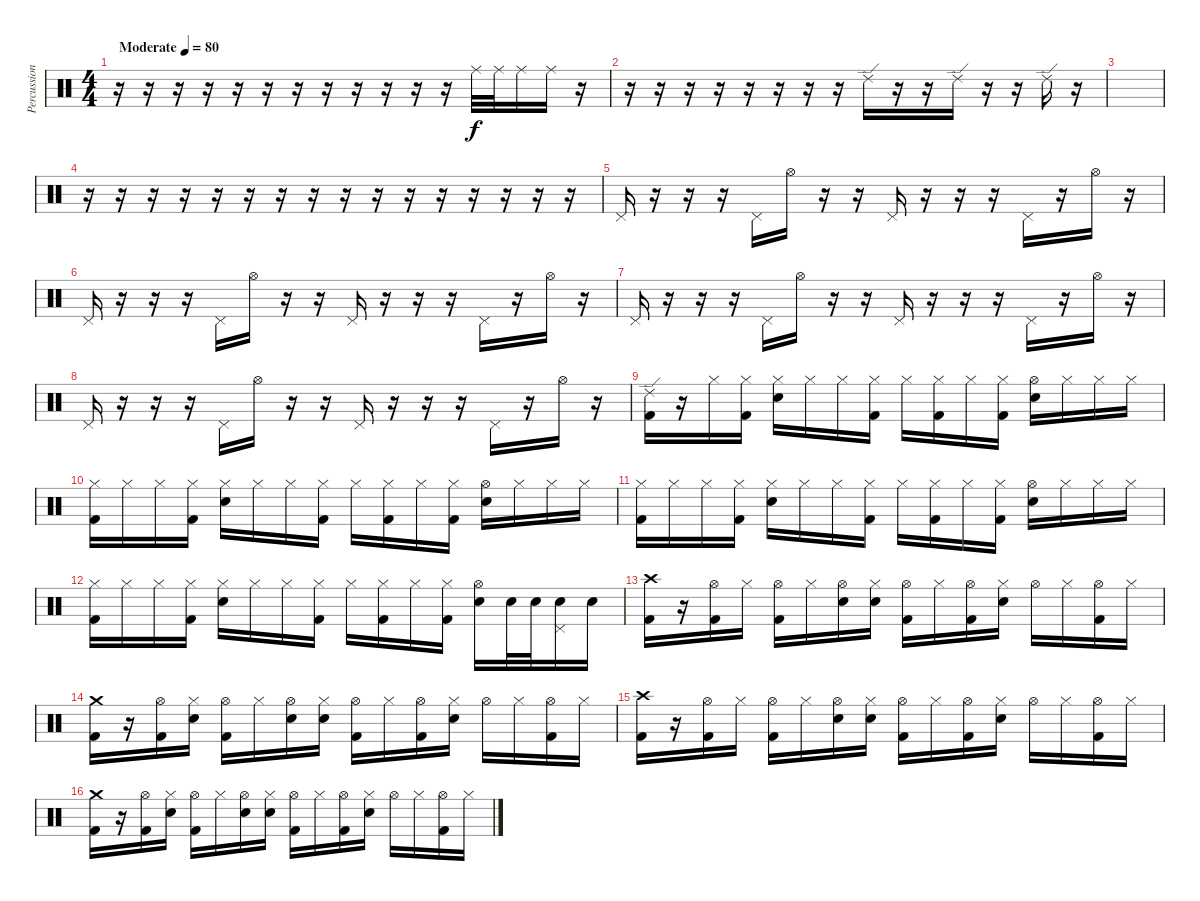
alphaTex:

\track ("Percussion" "Percussion") {instrument percussion bank 237}
\staff {score}
\articulation defaults
\ts (4 4)
\tempo (80 "Moderate")
\clef neutral
\ks c
r.16{dy f} r.16 r.16 r.16 r.16 r.16 r.16 r.16 r.16 r.16 r.16 r.16 "Ride (middle)".32 "Ride (middle)".32 "Ride (middle)".16 "Ride (middle)".16 r.16 |
r.16 r.16 r.16 r.16 r.16 r.16 r.16 r.16 "Ride (edge) 2".16 r.16 r.16 "Ride (edge) 2".16 r.16 r.16 "Ride (edge) 2".16 r.16 |
|
r.16 r.16 r.16 r.16 r.16 r.16 r.16 r.16 r.16 r.16 r.16 r.16 r.16 r.16 r.16 r.16 |
"Pedal Hi-Hat (hit)".16 r.16 r.16 r.16 "Pedal Hi-Hat (hit)".16 "Hi-Hat (open)".16 r.16 r.16 "Pedal Hi-Hat (hit)".16 r.16 r.16 r.16 "Pedal Hi-Hat (hit)".16 r.16 "Hi-Hat (open)".16 r.16 |
"Pedal Hi-Hat (hit)".16 r.16 r.16 r.16 "Pedal Hi-Hat (hit)".16 "Hi-Hat (open)".16 r.16 r.16 "Pedal Hi-Hat (hit)".16 r.16 r.16 r.16 "Pedal Hi-Hat (hit)".16 r.16 "Hi-Hat (open)".16 r.16 |
"Pedal Hi-Hat (hit)".16 r.16 r.16 r.16 "Pedal Hi-Hat (hit)".16 "Hi-Hat (open)".16 r.16 r.16 "Pedal Hi-Hat (hit)".16 r.16 r.16 r.16 "Pedal Hi-Hat (hit)".16 r.16 "Hi-Hat (open)".16 r.16 |
"Pedal Hi-Hat (hit)".16 r.16 r.16 r.16 "Pedal Hi-Hat (hit)".16 "Hi-Hat (open)".16 r.16 r.16 "Pedal Hi-Hat (hit)".16 r.16 r.16 r.16 "Pedal Hi-Hat (hit)".16 r.16 "Hi-Hat (open)".16 r.16 |
("Ride (edge) 2" "Kick (hit) 2").16 r.16 "Hi-Hat (closed)".16 ("Hi-Hat (closed)" "Kick (hit) 2").16 ("Hi-Hat (closed)" "Electric Snare (hit)").16 "Hi-Hat (closed)".16 "Hi-Hat (closed)".16 ("Hi-Hat (closed)" "Kick (hit) 2").16 "Hi-Hat (closed)".16 ("Hi-Hat (closed)" "Kick (hit) 2").16 "Hi-Hat (closed)".16 ("Hi-Hat (closed)" "Kick (hit) 2").16 ("Hi-Hat (open)" "Electric Snare (hit)").16 "Hi-Hat (closed)".16 "Hi-Hat (closed)".16 "Hi-Hat (closed)".16 |
("Hi-Hat (closed)" "Kick (hit) 2").16 "Hi-Hat (closed)".16 "Hi-Hat (closed)".16 ("Hi-Hat (closed)" "Kick (hit) 2").16 ("Hi-Hat (closed)" "Electric Snare (hit)").16 "Hi-Hat (closed)".16 "Hi-Hat (closed)".16 ("Hi-Hat (closed)" "Kick (hit) 2").16 "Hi-Hat (closed)".16 ("Hi-Hat (closed)" "Kick (hit) 2").16 "Hi-Hat (closed)".16 ("Hi-Hat (closed)" "Kick (hit) 2").16 ("Hi-Hat (open)" "Electric Snare (hit)").16 "Hi-Hat (closed)".16 "Hi-Hat (closed)".16 "Hi-Hat (closed)".16 |
("Hi-Hat (closed)" "Kick (hit) 2").16 "Hi-Hat (closed)".16 "Hi-Hat (closed)".16 ("Hi-Hat (closed)" "Kick (hit) 2").16 ("Hi-Hat (closed)" "Electric Snare (hit)").16 "Hi-Hat (closed)".16 "Hi-Hat (closed)".16 ("Hi-Hat (closed)" "Kick (hit) 2").16 "Hi-Hat (closed)".16 ("Hi-Hat (closed)" "Kick (hit) 2").16 "Hi-Hat (closed)".16 ("Hi-Hat (closed)" "Kick (hit) 2").16 ("Hi-Hat (open)" "Electric Snare (hit)").16 "Hi-Hat (closed)".16 "Hi-Hat (closed)".16 "Hi-Hat (closed)".16 |
("Hi-Hat (closed)" "Kick (hit) 2").16 "Hi-Hat (closed)".16 "Hi-Hat (closed)".16 ("Hi-Hat (closed)" "Kick (hit) 2").16 ("Hi-Hat (closed)" "Electric Snare (hit)").16 "Hi-Hat (closed)".16 "Hi-Hat (closed)".16 ("Hi-Hat (closed)" "Kick (hit) 2").16 "Hi-Hat (closed)".16 ("Hi-Hat (closed)" "Kick (hit) 2").16 "Hi-Hat (closed)".16 ("Hi-Hat (closed)" "Kick (hit) 2").16 ("Hi-Hat (open)" "Electric Snare (hit)").16 "Electric Snare (hit)".32 "Electric Snare (hit)".32 ("Pedal Hi-Hat (hit)" "Electric Snare (hit)").16 "Electric Snare (hit)".16 |
("Crash high (hit)" "Kick (hit) 2").16 r.16 ("Hi-Hat (open)" "Kick (hit) 2").16 "Hi-Hat (closed)".16 ("Hi-Hat (open)" "Kick (hit) 2").16 "Hi-Hat (closed)".16 ("Hi-Hat (open)" "Electric Snare (hit)").16 ("Hi-Hat (closed)" "Electric Snare (hit)").16 ("Hi-Hat (open)" "Kick (hit) 2").16 "Hi-Hat (closed)".16 ("Hi-Hat (open)" "Kick (hit) 2").16 ("Hi-Hat (closed)" "Electric Snare (hit)").16 "Hi-Hat (open)".16 "Hi-Hat (closed)".16 ("Hi-Hat (open)" "Kick (hit) 2").16 "Hi-Hat (closed)".16 |
("Crash medium (hit)" "Kick (hit) 2").16 r.16 ("Hi-Hat (open)" "Kick (hit) 2").16 ("Hi-Hat (closed)" "Electric Snare (hit)").16 ("Hi-Hat (open)" "Kick (hit) 2").16 "Hi-Hat (closed)".16 ("Hi-Hat (open)" "Electric Snare (hit)").16 ("Hi-Hat (closed)" "Electric Snare (hit)").16 ("Hi-Hat (open)" "Kick (hit) 2").16 "Hi-Hat (closed)".16 ("Hi-Hat (open)" "Kick (hit) 2").16 ("Hi-Hat (closed)" "Electric Snare (hit)").16 "Hi-Hat (open)".16 "Hi-Hat (closed)".16 ("Hi-Hat (open)" "Kick (hit) 2").16 "Hi-Hat (closed)".16 |
("Crash high (hit)" "Kick (hit) 2").16 r.16 ("Hi-Hat (open)" "Kick (hit) 2").16 "Hi-Hat (closed)".16 ("Hi-Hat (open)" "Kick (hit) 2").16 "Hi-Hat (closed)".16 ("Hi-Hat (open)" "Electric Snare (hit)").16 ("Hi-Hat (closed)" "Electric Snare (hit)").16 ("Hi-Hat (open)" "Kick (hit) 2").16 "Hi-Hat (closed)".16 ("Hi-Hat (open)" "Kick (hit) 2").16 ("Hi-Hat (closed)" "Electric Snare (hit)").16 "Hi-Hat (open)".16 "Hi-Hat (closed)".16 ("Hi-Hat (open)" "Kick (hit) 2").16 "Hi-Hat (closed)".16 |
("Crash medium (hit)" "Kick (hit) 2").16 r.16 ("Hi-Hat (open)" "Kick (hit) 2").16 ("Hi-Hat (closed)" "Electric Snare (hit)").16 ("Hi-Hat (open)" "Kick (hit) 2").16 "Hi-Hat (closed)".16 ("Hi-Hat (open)" "Electric Snare (hit)").16 ("Hi-Hat (closed)" "Electric Snare (hit)").16 ("Hi-Hat (open)" "Kick (hit) 2").16 "Hi-Hat (closed)".16 ("Hi-Hat (open)" "Kick (hit) 2").16 ("Hi-Hat (closed)" "Electric Snare (hit)").16 "Hi-Hat (open)".16 "Hi-Hat (closed)".16 ("Hi-Hat (open)" "Kick (hit) 2").16 "Hi-Hat (closed)".16
